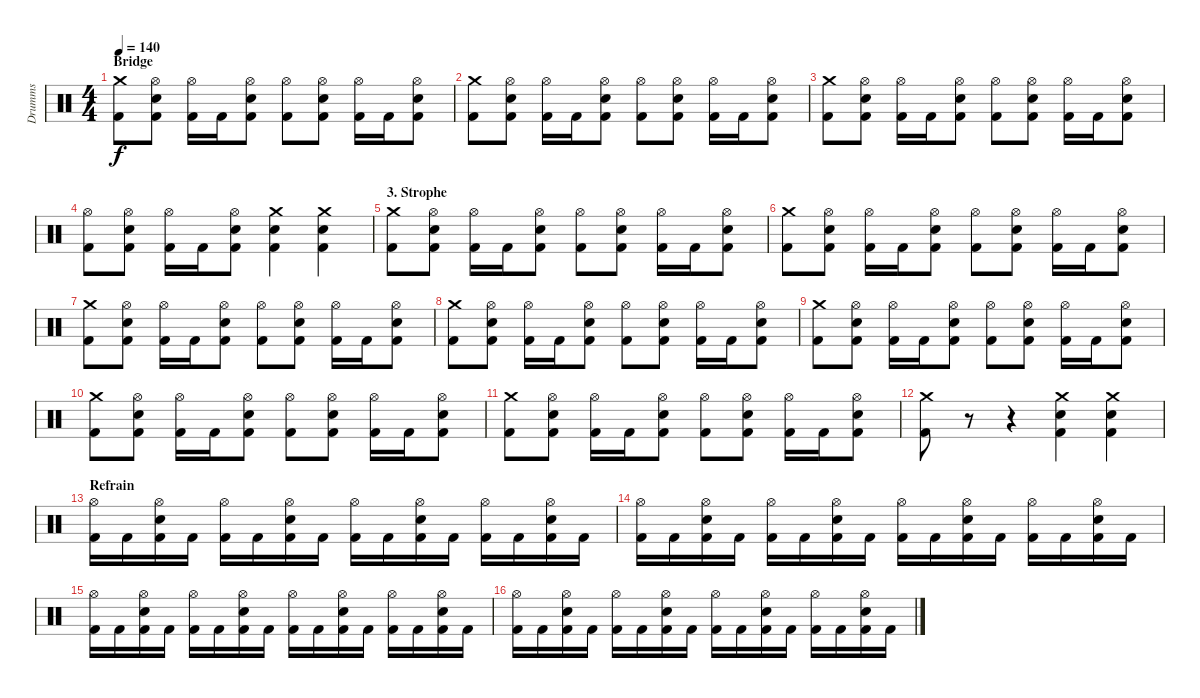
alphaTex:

\track ("Drumms" "Drumms") {instrument percussion}
\staff {score}
\articulation defaults
\ts (4 4)
\section ("" "Bridge")
\tempo 140
\clef neutral
\ks c
("Crash medium (hit)" "Kick (hit) 2").8{dy f} ("Hi-Hat (open)" "Electric Snare (hit)" "Kick (hit) 2").8 ("Hi-Hat (open)" "Kick (hit) 2").16 "Kick (hit) 2".16 ("Hi-Hat (open)" "Electric Snare (hit)" "Kick (hit) 2").8 ("Hi-Hat (open)" "Kick (hit) 2").8 ("Hi-Hat (open)" "Electric Snare (hit)" "Kick (hit) 2").8 ("Hi-Hat (open)" "Kick (hit) 2").16 "Kick (hit) 2".16 ("Hi-Hat (open)" "Electric Snare (hit)" "Kick (hit) 2").8 |
("Crash medium (hit)" "Kick (hit) 2").8 ("Hi-Hat (open)" "Electric Snare (hit)" "Kick (hit) 2").8 ("Hi-Hat (open)" "Kick (hit) 2").16 "Kick (hit) 2".16 ("Hi-Hat (open)" "Electric Snare (hit)" "Kick (hit) 2").8 ("Hi-Hat (open)" "Kick (hit) 2").8 ("Hi-Hat (open)" "Electric Snare (hit)" "Kick (hit) 2").8 ("Hi-Hat (open)" "Kick (hit) 2").16 "Kick (hit) 2".16 ("Hi-Hat (open)" "Electric Snare (hit)" "Kick (hit) 2").8 |
("Crash medium (hit)" "Kick (hit) 2").8 ("Hi-Hat (open)" "Electric Snare (hit)" "Kick (hit) 2").8 ("Hi-Hat (open)" "Kick (hit) 2").16 "Kick (hit) 2".16 ("Hi-Hat (open)" "Electric Snare (hit)" "Kick (hit) 2").8 ("Hi-Hat (open)" "Kick (hit) 2").8 ("Hi-Hat (open)" "Electric Snare (hit)" "Kick (hit) 2").8 ("Hi-Hat (open)" "Kick (hit) 2").16 "Kick (hit) 2".16 ("Hi-Hat (open)" "Electric Snare (hit)" "Kick (hit) 2").8 |
("Hi-Hat (open)" "Kick (hit) 2").8 ("Hi-Hat (open)" "Electric Snare (hit)" "Kick (hit) 2").8 ("Hi-Hat (open)" "Kick (hit) 2").16 "Kick (hit) 2".16 ("Hi-Hat (open)" "Electric Snare (hit)" "Kick (hit) 2").8 ("Crash medium (hit)" "Electric Snare (hit)" "Kick (hit) 2").4 ("Crash medium (hit)" "Electric Snare (hit)" "Kick (hit) 2").4 |
\section ("" "3. Strophe")
("Crash medium (hit)" "Kick (hit) 2").8 ("Hi-Hat (open)" "Electric Snare (hit)" "Kick (hit) 2").8 ("Hi-Hat (open)" "Kick (hit) 2").16 "Kick (hit) 2".16 ("Hi-Hat (open)" "Electric Snare (hit)" "Kick (hit) 2").8 ("Hi-Hat (open)" "Kick (hit) 2").8 ("Hi-Hat (open)" "Electric Snare (hit)" "Kick (hit) 2").8 ("Hi-Hat (open)" "Kick (hit) 2").16 "Kick (hit) 2".16 ("Hi-Hat (open)" "Electric Snare (hit)" "Kick (hit) 2").8 |
("Crash medium (hit)" "Kick (hit) 2").8 ("Hi-Hat (open)" "Electric Snare (hit)" "Kick (hit) 2").8 ("Hi-Hat (open)" "Kick (hit) 2").16 "Kick (hit) 2".16 ("Hi-Hat (open)" "Electric Snare (hit)" "Kick (hit) 2").8 ("Hi-Hat (open)" "Kick (hit) 2").8 ("Hi-Hat (open)" "Electric Snare (hit)" "Kick (hit) 2").8 ("Hi-Hat (open)" "Kick (hit) 2").16 "Kick (hit) 2".16 ("Hi-Hat (open)" "Electric Snare (hit)" "Kick (hit) 2").8 |
("Crash medium (hit)" "Kick (hit) 2").8 ("Hi-Hat (open)" "Electric Snare (hit)" "Kick (hit) 2").8 ("Hi-Hat (open)" "Kick (hit) 2").16 "Kick (hit) 2".16 ("Hi-Hat (open)" "Electric Snare (hit)" "Kick (hit) 2").8 ("Hi-Hat (open)" "Kick (hit) 2").8 ("Hi-Hat (open)" "Electric Snare (hit)" "Kick (hit) 2").8 ("Hi-Hat (open)" "Kick (hit) 2").16 "Kick (hit) 2".16 ("Hi-Hat (open)" "Electric Snare (hit)" "Kick (hit) 2").8 |
("Crash medium (hit)" "Kick (hit) 2").8 ("Hi-Hat (open)" "Electric Snare (hit)" "Kick (hit) 2").8 ("Hi-Hat (open)" "Kick (hit) 2").16 "Kick (hit) 2".16 ("Hi-Hat (open)" "Electric Snare (hit)" "Kick (hit) 2").8 ("Hi-Hat (open)" "Kick (hit) 2").8 ("Hi-Hat (open)" "Electric Snare (hit)" "Kick (hit) 2").8 ("Hi-Hat (open)" "Kick (hit) 2").16 "Kick (hit) 2".16 ("Hi-Hat (open)" "Electric Snare (hit)" "Kick (hit) 2").8 |
("Crash medium (hit)" "Kick (hit) 2").8 ("Hi-Hat (open)" "Electric Snare (hit)" "Kick (hit) 2").8 ("Hi-Hat (open)" "Kick (hit) 2").16 "Kick (hit) 2".16 ("Hi-Hat (open)" "Electric Snare (hit)" "Kick (hit) 2").8 ("Hi-Hat (open)" "Kick (hit) 2").8 ("Hi-Hat (open)" "Electric Snare (hit)" "Kick (hit) 2").8 ("Hi-Hat (open)" "Kick (hit) 2").16 "Kick (hit) 2".16 ("Hi-Hat (open)" "Electric Snare (hit)" "Kick (hit) 2").8 |
("Crash medium (hit)" "Kick (hit) 2").8 ("Hi-Hat (open)" "Electric Snare (hit)" "Kick (hit) 2").8 ("Hi-Hat (open)" "Kick (hit) 2").16 "Kick (hit) 2".16 ("Hi-Hat (open)" "Electric Snare (hit)" "Kick (hit) 2").8 ("Hi-Hat (open)" "Kick (hit) 2").8 ("Hi-Hat (open)" "Electric Snare (hit)" "Kick (hit) 2").8 ("Hi-Hat (open)" "Kick (hit) 2").16 "Kick (hit) 2".16 ("Hi-Hat (open)" "Electric Snare (hit)" "Kick (hit) 2").8 |
("Crash medium (hit)" "Kick (hit) 2").8 ("Hi-Hat (open)" "Electric Snare (hit)" "Kick (hit) 2").8 ("Hi-Hat (open)" "Kick (hit) 2").16 "Kick (hit) 2".16 ("Hi-Hat (open)" "Electric Snare (hit)" "Kick (hit) 2").8 ("Hi-Hat (open)" "Kick (hit) 2").8 ("Hi-Hat (open)" "Electric Snare (hit)" "Kick (hit) 2").8 ("Hi-Hat (open)" "Kick (hit) 2").16 "Kick (hit) 2".16 ("Hi-Hat (open)" "Electric Snare (hit)" "Kick (hit) 2").8 |
("Crash medium (hit)" "Kick (hit) 2").8 r.8 r.4 ("Crash medium (hit)" "Electric Snare (hit)" "Kick (hit) 2").4 ("Crash medium (hit)" "Electric Snare (hit)" "Kick (hit) 2").4 |
\section ("" "Refrain")
("Hi-Hat (open)" "Kick (hit) 2").16 "Kick (hit) 2".16 ("Hi-Hat (open)" "Electric Snare (hit)" "Kick (hit) 2").16 "Kick (hit) 2".16 ("Hi-Hat (open)" "Kick (hit) 2").16 "Kick (hit) 2".16 ("Hi-Hat (open)" "Electric Snare (hit)" "Kick (hit) 2").16 "Kick (hit) 2".16 ("Hi-Hat (open)" "Kick (hit) 2").16 "Kick (hit) 2".16 ("Hi-Hat (open)" "Electric Snare (hit)" "Kick (hit) 2").16 "Kick (hit) 2".16 ("Hi-Hat (open)" "Kick (hit) 2").16 "Kick (hit) 2".16 ("Hi-Hat (open)" "Electric Snare (hit)" "Kick (hit) 2").16 "Kick (hit) 2".16 |
("Hi-Hat (open)" "Kick (hit) 2").16 "Kick (hit) 2".16 ("Hi-Hat (open)" "Electric Snare (hit)" "Kick (hit) 2").16 "Kick (hit) 2".16 ("Hi-Hat (open)" "Kick (hit) 2").16 "Kick (hit) 2".16 ("Hi-Hat (open)" "Electric Snare (hit)" "Kick (hit) 2").16 "Kick (hit) 2".16 ("Hi-Hat (open)" "Kick (hit) 2").16 "Kick (hit) 2".16 ("Hi-Hat (open)" "Electric Snare (hit)" "Kick (hit) 2").16 "Kick (hit) 2".16 ("Hi-Hat (open)" "Kick (hit) 2").16 "Kick (hit) 2".16 ("Hi-Hat (open)" "Electric Snare (hit)" "Kick (hit) 2").16 "Kick (hit) 2".16 |
("Hi-Hat (open)" "Kick (hit) 2").16 "Kick (hit) 2".16 ("Hi-Hat (open)" "Electric Snare (hit)" "Kick (hit) 2").16 "Kick (hit) 2".16 ("Hi-Hat (open)" "Kick (hit) 2").16 "Kick (hit) 2".16 ("Hi-Hat (open)" "Electric Snare (hit)" "Kick (hit) 2").16 "Kick (hit) 2".16 ("Hi-Hat (open)" "Kick (hit) 2").16 "Kick (hit) 2".16 ("Hi-Hat (open)" "Electric Snare (hit)" "Kick (hit) 2").16 "Kick (hit) 2".16 ("Hi-Hat (open)" "Kick (hit) 2").16 "Kick (hit) 2".16 ("Hi-Hat (open)" "Electric Snare (hit)" "Kick (hit) 2").16 "Kick (hit) 2".16 |
("Hi-Hat (open)" "Kick (hit) 2").16 "Kick (hit) 2".16 ("Hi-Hat (open)" "Electric Snare (hit)" "Kick (hit) 2").16 "Kick (hit) 2".16 ("Hi-Hat (open)" "Kick (hit) 2").16 "Kick (hit) 2".16 ("Hi-Hat (open)" "Electric Snare (hit)" "Kick (hit) 2").16 "Kick (hit) 2".16 ("Hi-Hat (open)" "Kick (hit) 2").16 "Kick (hit) 2".16 ("Hi-Hat (open)" "Electric Snare (hit)" "Kick (hit) 2").16 "Kick (hit) 2".16 ("Hi-Hat (open)" "Kick (hit) 2").16 "Kick (hit) 2".16 ("Hi-Hat (open)" "Electric Snare (hit)" "Kick (hit) 2").16 "Kick (hit) 2".16
